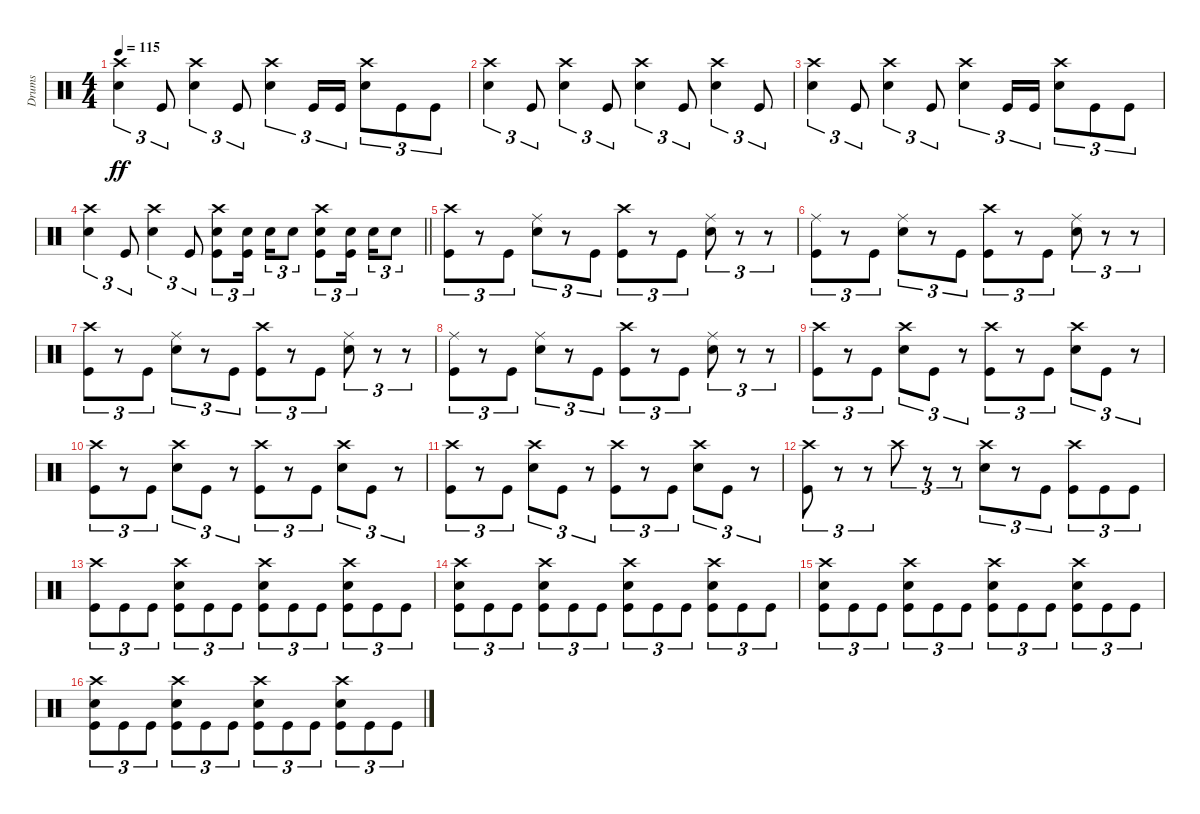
\track ("Drums" "Drums") {instrument percussion}
\staff {score}
\articulation defaults
\ts (4 4)
\tempo 115
\clef neutral
\ks c
("Crash high (hit)" "Snare (hit) 2").4{tu (3 2) dy ff} "Kick (hit)".8{tu (3 2)} ("Crash high (hit)" "Snare (hit) 2").4{tu (3 2)} "Kick (hit)".8{tu (3 2)} ("Crash high (hit)" "Snare (hit) 2").4{tu (3 2)} "Kick (hit)".16{tu (3 2)} "Kick (hit)".16{tu (3 2)} ("Crash high (hit)" "Snare (hit) 2").8{tu (3 2)} "Kick (hit)".8{tu (3 2)} "Kick (hit)".8{tu (3 2)} |
("Crash high (hit)" "Snare (hit) 2").4{tu (3 2)} "Kick (hit)".8{tu (3 2)} ("Crash high (hit)" "Snare (hit) 2").4{tu (3 2)} "Kick (hit)".8{tu (3 2)} ("Crash high (hit)" "Snare (hit) 2").4{tu (3 2)} "Kick (hit)".8{tu (3 2)} ("Crash high (hit)" "Snare (hit) 2").4{tu (3 2)} "Kick (hit)".8{tu (3 2)} |
("Crash high (hit)" "Snare (hit) 2").4{tu (3 2)} "Kick (hit)".8{tu (3 2)} ("Crash high (hit)" "Snare (hit) 2").4{tu (3 2)} "Kick (hit)".8{tu (3 2)} ("Crash high (hit)" "Snare (hit) 2").4{tu (3 2)} "Kick (hit)".16{tu (3 2)} "Kick (hit)".16{tu (3 2)} ("Crash high (hit)" "Snare (hit) 2").8{tu (3 2)} "Kick (hit)".8{tu (3 2)} "Kick (hit)".8{tu (3 2)} |
\barLineRight lightlight
("Crash high (hit)" "Snare (hit) 2").4{tu (3 2)} "Kick (hit)".8{tu (3 2)} ("Crash high (hit)" "Snare (hit) 2").4{tu (3 2)} "Kick (hit)".8{tu (3 2)} ("Crash high (hit)" "Snare (hit) 2" "Kick (hit)").8{tu (3 2)} ("Snare (hit) 2" "Kick (hit)").16{tu (3 2) beam splitsecondary} "Snare (hit) 2".16{tu (3 2)} "Snare (hit) 2".8{tu (3 2)} ("Crash high (hit)" "Snare (hit) 2" "Kick (hit)").8{tu (3 2)} ("Snare (hit) 2" "Kick (hit)").16{tu (3 2) beam splitsecondary} "Snare (hit) 2".16{tu (3 2)} "Snare (hit) 2".8{tu (3 2)} |
("Crash high (hit)" "Kick (hit)").8{tu (3 2)} r.8{tu (3 2)} "Kick (hit)".8{tu (3 2)} ("Ride (middle)" "Snare (hit) 2").8{tu (3 2)} r.8{tu (3 2)} "Kick (hit)".8{tu (3 2)} ("Crash high (hit)" "Kick (hit)").8{tu (3 2)} r.8{tu (3 2)} "Kick (hit)".8{tu (3 2)} ("Ride (middle)" "Snare (hit) 2").8{tu (3 2)} r.8{tu (3 2)} r.8{tu (3 2)} |
("Ride (middle)" "Kick (hit)").8{tu (3 2)} r.8{tu (3 2)} "Kick (hit)".8{tu (3 2)} ("Ride (middle)" "Snare (hit) 2").8{tu (3 2)} r.8{tu (3 2)} "Kick (hit)".8{tu (3 2)} ("Crash high (hit)" "Kick (hit)").8{tu (3 2)} r.8{tu (3 2)} "Kick (hit)".8{tu (3 2)} ("Ride (middle)" "Snare (hit) 2").8{tu (3 2)} r.8{tu (3 2)} r.8{tu (3 2)} |
("Crash high (hit)" "Kick (hit)").8{tu (3 2)} r.8{tu (3 2)} "Kick (hit)".8{tu (3 2)} ("Ride (middle)" "Snare (hit) 2").8{tu (3 2)} r.8{tu (3 2)} "Kick (hit)".8{tu (3 2)} ("Crash high (hit)" "Kick (hit)").8{tu (3 2)} r.8{tu (3 2)} "Kick (hit)".8{tu (3 2)} ("Ride (middle)" "Snare (hit) 2").8{tu (3 2)} r.8{tu (3 2)} r.8{tu (3 2)} |
("Ride (middle)" "Kick (hit)").8{tu (3 2)} r.8{tu (3 2)} "Kick (hit)".8{tu (3 2)} ("Ride (middle)" "Snare (hit) 2").8{tu (3 2)} r.8{tu (3 2)} "Kick (hit)".8{tu (3 2)} ("Crash high (hit)" "Kick (hit)").8{tu (3 2)} r.8{tu (3 2)} "Kick (hit)".8{tu (3 2)} ("Ride (middle)" "Snare (hit) 2").8{tu (3 2)} r.8{tu (3 2)} r.8{tu (3 2)} |
("Crash high (hit)" "Kick (hit)").8{tu (3 2)} r.8{tu (3 2)} "Kick (hit)".8{tu (3 2)} ("Crash high (hit)" "Snare (hit) 2").8{tu (3 2)} "Kick (hit)".8{tu (3 2)} r.8{tu (3 2)} ("Crash high (hit)" "Kick (hit)").8{tu (3 2)} r.8{tu (3 2)} "Kick (hit)".8{tu (3 2)} ("Crash high (hit)" "Snare (hit) 2").8{tu (3 2)} "Kick (hit)".8{tu (3 2)} r.8{tu (3 2)} |
("Crash high (hit)" "Kick (hit)").8{tu (3 2)} r.8{tu (3 2)} "Kick (hit)".8{tu (3 2)} ("Crash high (hit)" "Snare (hit) 2").8{tu (3 2)} "Kick (hit)".8{tu (3 2)} r.8{tu (3 2)} ("Crash high (hit)" "Kick (hit)").8{tu (3 2)} r.8{tu (3 2)} "Kick (hit)".8{tu (3 2)} ("Crash high (hit)" "Snare (hit) 2").8{tu (3 2)} "Kick (hit)".8{tu (3 2)} r.8{tu (3 2)} |
("Crash high (hit)" "Kick (hit)").8{tu (3 2)} r.8{tu (3 2)} "Kick (hit)".8{tu (3 2)} ("Crash high (hit)" "Snare (hit) 2").8{tu (3 2)} "Kick (hit)".8{tu (3 2)} r.8{tu (3 2)} ("Crash high (hit)" "Kick (hit)").8{tu (3 2)} r.8{tu (3 2)} "Kick (hit)".8{tu (3 2)} ("Crash high (hit)" "Snare (hit) 2").8{tu (3 2)} "Kick (hit)".8{tu (3 2)} r.8{tu (3 2)} |
("Crash high (hit)" "Kick (hit)").8{tu (3 2)} r.8{tu (3 2)} r.8{tu (3 2)} "Crash high (hit)".8{tu (3 2)} r.8{tu (3 2)} r.8{tu (3 2)} ("Crash high (hit)" "Snare (hit) 2").8{tu (3 2)} r.8{tu (3 2)} "Kick (hit)".8{tu (3 2)} ("Crash high (hit)" "Kick (hit)").8{tu (3 2)} "Kick (hit)".8{tu (3 2)} "Kick (hit)".8{tu (3 2)} |
("Crash high (hit)" "Kick (hit)").8{tu (3 2)} "Kick (hit)".8{tu (3 2)} "Kick (hit)".8{tu (3 2)} ("Crash high (hit)" "Snare (hit) 2" "Kick (hit)").8{tu (3 2)} "Kick (hit)".8{tu (3 2)} "Kick (hit)".8{tu (3 2)} ("Crash high (hit)" "Snare (hit) 2" "Kick (hit)").8{tu (3 2)} "Kick (hit)".8{tu (3 2)} "Kick (hit)".8{tu (3 2)} ("Crash high (hit)" "Snare (hit) 2" "Kick (hit)").8{tu (3 2)} "Kick (hit)".8{tu (3 2)} "Kick (hit)".8{tu (3 2)} |
("Crash high (hit)" "Snare (hit) 2" "Kick (hit)").8{tu (3 2)} "Kick (hit)".8{tu (3 2)} "Kick (hit)".8{tu (3 2)} ("Crash high (hit)" "Snare (hit) 2" "Kick (hit)").8{tu (3 2)} "Kick (hit)".8{tu (3 2)} "Kick (hit)".8{tu (3 2)} ("Crash high (hit)" "Snare (hit) 2" "Kick (hit)").8{tu (3 2)} "Kick (hit)".8{tu (3 2)} "Kick (hit)".8{tu (3 2)} ("Crash high (hit)" "Snare (hit) 2" "Kick (hit)").8{tu (3 2)} "Kick (hit)".8{tu (3 2)} "Kick (hit)".8{tu (3 2)} |
("Crash high (hit)" "Snare (hit) 2" "Kick (hit)").8{tu (3 2)} "Kick (hit)".8{tu (3 2)} "Kick (hit)".8{tu (3 2)} ("Crash high (hit)" "Snare (hit) 2" "Kick (hit)").8{tu (3 2)} "Kick (hit)".8{tu (3 2)} "Kick (hit)".8{tu (3 2)} ("Crash high (hit)" "Snare (hit) 2" "Kick (hit)").8{tu (3 2)} "Kick (hit)".8{tu (3 2)} "Kick (hit)".8{tu (3 2)} ("Crash high (hit)" "Snare (hit) 2" "Kick (hit)").8{tu (3 2)} "Kick (hit)".8{tu (3 2)} "Kick (hit)".8{tu (3 2)} |
("Crash high (hit)" "Snare (hit) 2" "Kick (hit)").8{tu (3 2)} "Kick (hit)".8{tu (3 2)} "Kick (hit)".8{tu (3 2)} ("Crash high (hit)" "Snare (hit) 2" "Kick (hit)").8{tu (3 2)} "Kick (hit)".8{tu (3 2)} "Kick (hit)".8{tu (3 2)} ("Crash high (hit)" "Snare (hit) 2" "Kick (hit)").8{tu (3 2)} "Kick (hit)".8{tu (3 2)} "Kick (hit)".8{tu (3 2)} ("Crash high (hit)" "Snare (hit) 2" "Kick (hit)").8{tu (3 2)} "Kick (hit)".8{tu (3 2)} "Kick (hit)".8{tu (3 2)}
